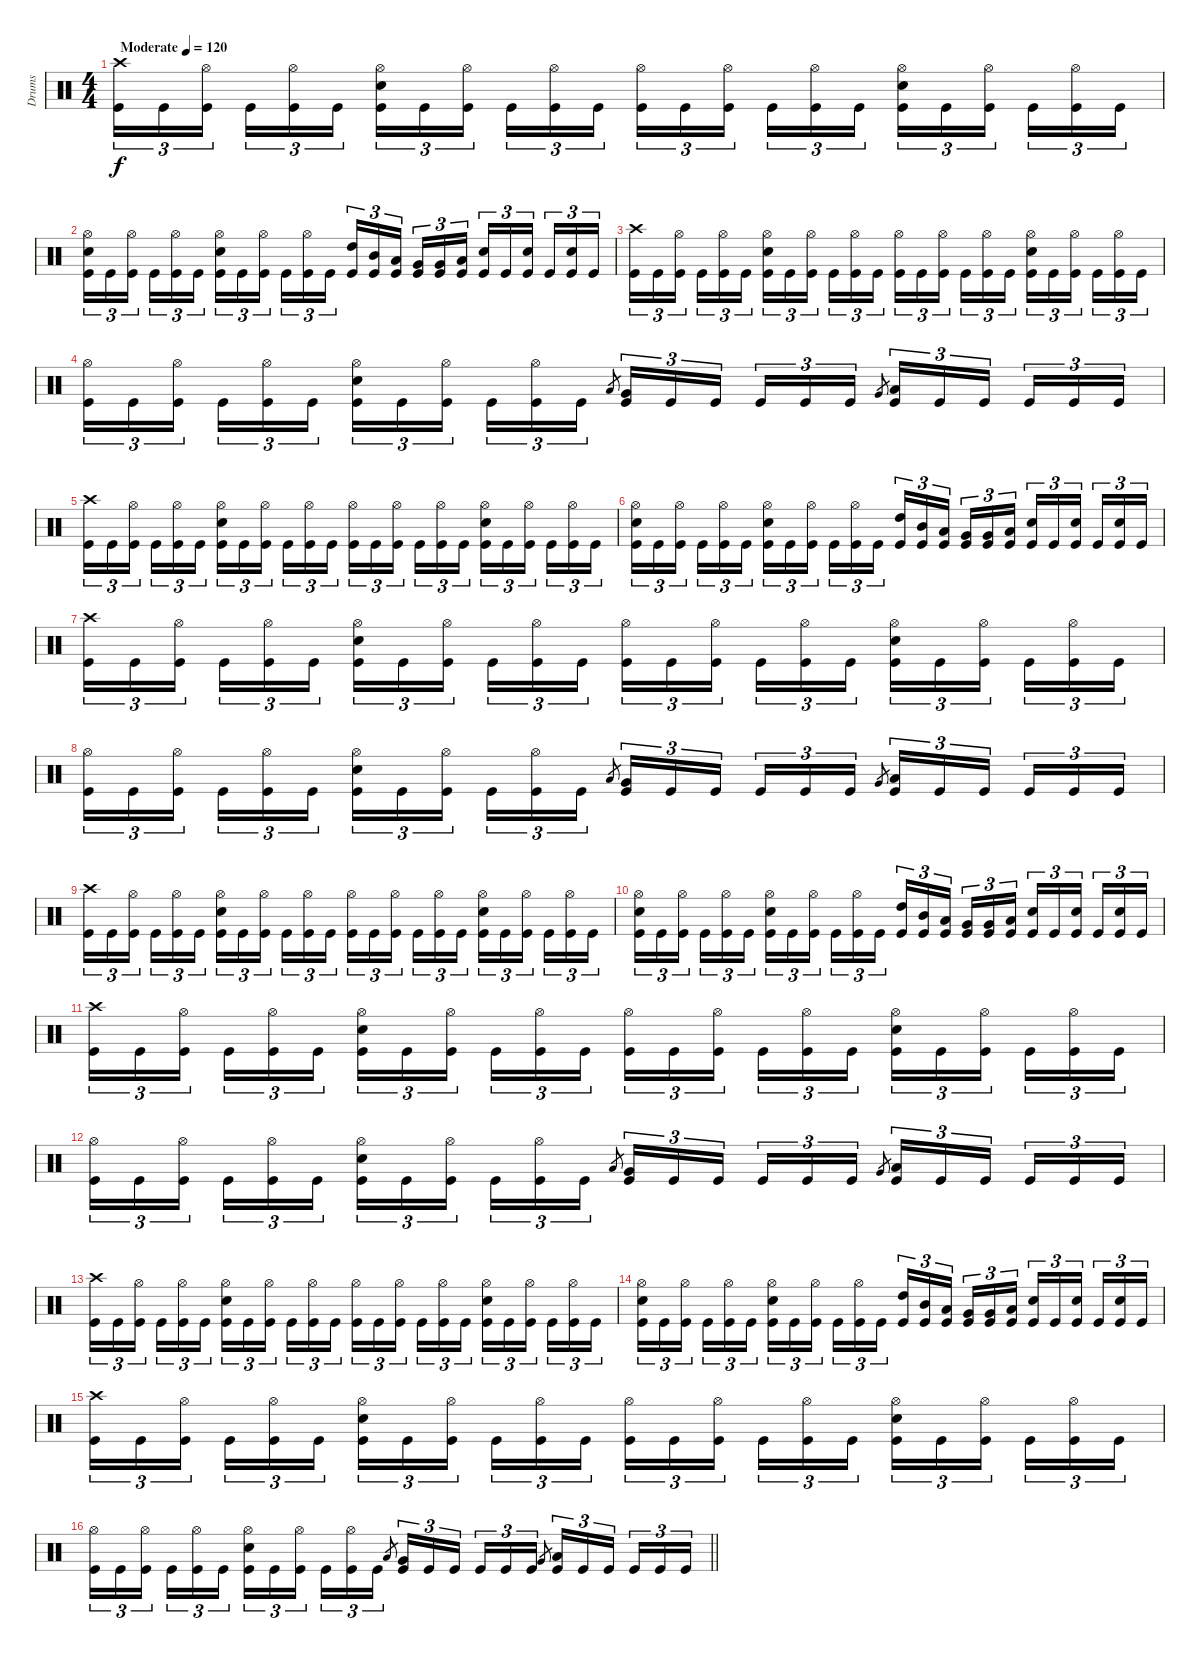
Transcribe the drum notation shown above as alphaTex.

\track ("Drums" "Drums") {instrument percussion}
\staff {score}
\articulation defaults
\ts (4 4)
\tempo (120 "Moderate")
\clef neutral
\ks c
("Crash high (hit)" "Kick (hit)").16{tu (3 2) dy f} "Kick (hit)".16{tu (3 2)} ("Hi-Hat (open)" "Kick (hit)").16{tu (3 2) beam splitsecondary} "Kick (hit)".16{tu (3 2)} ("Hi-Hat (open)" "Kick (hit)").16{tu (3 2)} "Kick (hit)".16{tu (3 2)} ("Hi-Hat (open)" "Snare (hit) 2" "Kick (hit)").16{tu (3 2)} "Kick (hit)".16{tu (3 2)} ("Hi-Hat (open)" "Kick (hit)").16{tu (3 2) beam splitsecondary} "Kick (hit)".16{tu (3 2)} ("Hi-Hat (open)" "Kick (hit)").16{tu (3 2)} "Kick (hit)".16{tu (3 2)} ("Hi-Hat (open)" "Kick (hit)").16{tu (3 2)} "Kick (hit)".16{tu (3 2)} ("Hi-Hat (open)" "Kick (hit)").16{tu (3 2) beam splitsecondary} "Kick (hit)".16{tu (3 2)} ("Hi-Hat (open)" "Kick (hit)").16{tu (3 2)} "Kick (hit)".16{tu (3 2)} ("Hi-Hat (open)" "Snare (hit) 2" "Kick (hit)").16{tu (3 2)} "Kick (hit)".16{tu (3 2)} ("Hi-Hat (open)" "Kick (hit)").16{tu (3 2) beam splitsecondary} "Kick (hit)".16{tu (3 2)} ("Hi-Hat (open)" "Kick (hit)").16{tu (3 2)} "Kick (hit)".16{tu (3 2)} |
("Hi-Hat (open)" "Snare (hit) 2" "Kick (hit)").16{tu (3 2)} "Kick (hit)".16{tu (3 2)} ("Hi-Hat (open)" "Kick (hit)").16{tu (3 2) beam splitsecondary} "Kick (hit)".16{tu (3 2)} ("Hi-Hat (open)" "Kick (hit)").16{tu (3 2)} "Kick (hit)".16{tu (3 2)} ("Hi-Hat (open)" "Snare (hit) 2" "Kick (hit)").16{tu (3 2)} "Kick (hit)".16{tu (3 2)} ("Hi-Hat (open)" "Kick (hit)").16{tu (3 2) beam splitsecondary} "Kick (hit)".16{tu (3 2)} ("Hi-Hat (open)" "Kick (hit)").16{tu (3 2)} "Kick (hit)".16{tu (3 2)} ("High Tom (hit)" "Kick (hit)").16{tu (3 2)} ("Mid Tom (hit)" "Kick (hit)").16{tu (3 2)} ("Low Tom (hit)" "Kick (hit)").16{tu (3 2) beam splitsecondary} ("Very Low Tom (hit)" "Kick (hit)").16{tu (3 2)} ("Very Low Tom (hit)" "Kick (hit)").16{tu (3 2)} ("Low Floor Tom (hit)" "Kick (hit)").16{tu (3 2)} ("Snare (hit) 2" "Kick (hit)").16{tu (3 2)} "Kick (hit)".16{tu (3 2)} ("Snare (hit) 2" "Kick (hit)").16{tu (3 2) beam splitsecondary} "Kick (hit)".16{tu (3 2)} ("Snare (hit) 2" "Kick (hit)").16{tu (3 2)} "Kick (hit)".16{tu (3 2)} |
("Crash high (hit)" "Kick (hit)").16{tu (3 2)} "Kick (hit)".16{tu (3 2)} ("Hi-Hat (open)" "Kick (hit)").16{tu (3 2) beam splitsecondary} "Kick (hit)".16{tu (3 2)} ("Hi-Hat (open)" "Kick (hit)").16{tu (3 2)} "Kick (hit)".16{tu (3 2)} ("Hi-Hat (open)" "Snare (hit) 2" "Kick (hit)").16{tu (3 2)} "Kick (hit)".16{tu (3 2)} ("Hi-Hat (open)" "Kick (hit)").16{tu (3 2) beam splitsecondary} "Kick (hit)".16{tu (3 2)} ("Hi-Hat (open)" "Kick (hit)").16{tu (3 2)} "Kick (hit)".16{tu (3 2)} ("Hi-Hat (open)" "Kick (hit)").16{tu (3 2)} "Kick (hit)".16{tu (3 2)} ("Hi-Hat (open)" "Kick (hit)").16{tu (3 2) beam splitsecondary} "Kick (hit)".16{tu (3 2)} ("Hi-Hat (open)" "Kick (hit)").16{tu (3 2)} "Kick (hit)".16{tu (3 2)} ("Hi-Hat (open)" "Snare (hit) 2" "Kick (hit)").16{tu (3 2)} "Kick (hit)".16{tu (3 2)} ("Hi-Hat (open)" "Kick (hit)").16{tu (3 2) beam splitsecondary} "Kick (hit)".16{tu (3 2)} ("Hi-Hat (open)" "Kick (hit)").16{tu (3 2)} "Kick (hit)".16{tu (3 2)} |
("Hi-Hat (open)" "Kick (hit)").16{tu (3 2)} "Kick (hit)".16{tu (3 2)} ("Hi-Hat (open)" "Kick (hit)").16{tu (3 2) beam splitsecondary} "Kick (hit)".16{tu (3 2)} ("Hi-Hat (open)" "Kick (hit)").16{tu (3 2)} "Kick (hit)".16{tu (3 2)} ("Hi-Hat (open)" "Snare (hit) 2" "Kick (hit)").16{tu (3 2)} "Kick (hit)".16{tu (3 2)} ("Hi-Hat (open)" "Kick (hit)").16{tu (3 2) beam splitsecondary} "Kick (hit)".16{tu (3 2)} ("Hi-Hat (open)" "Kick (hit)").16{tu (3 2)} "Kick (hit)".16{tu (3 2)} "Low Tom (hit)".8{gr} ("Very Low Tom (hit)" "Kick (hit)").16{tu (3 2)} "Kick (hit)".16{tu (3 2)} "Kick (hit)".16{tu (3 2) beam splitsecondary} "Kick (hit)".16{tu (3 2)} "Kick (hit)".16{tu (3 2)} "Kick (hit)".16{tu (3 2)} "Very Low Tom (hit)".8{gr} ("Low Floor Tom (hit)" "Kick (hit)").16{tu (3 2)} "Kick (hit)".16{tu (3 2)} "Kick (hit)".16{tu (3 2) beam splitsecondary} "Kick (hit)".16{tu (3 2)} "Kick (hit)".16{tu (3 2)} "Kick (hit)".16{tu (3 2)} |
("Crash high (hit)" "Kick (hit)").16{tu (3 2)} "Kick (hit)".16{tu (3 2)} ("Hi-Hat (open)" "Kick (hit)").16{tu (3 2) beam splitsecondary} "Kick (hit)".16{tu (3 2)} ("Hi-Hat (open)" "Kick (hit)").16{tu (3 2)} "Kick (hit)".16{tu (3 2)} ("Hi-Hat (open)" "Snare (hit) 2" "Kick (hit)").16{tu (3 2)} "Kick (hit)".16{tu (3 2)} ("Hi-Hat (open)" "Kick (hit)").16{tu (3 2) beam splitsecondary} "Kick (hit)".16{tu (3 2)} ("Hi-Hat (open)" "Kick (hit)").16{tu (3 2)} "Kick (hit)".16{tu (3 2)} ("Hi-Hat (open)" "Kick (hit)").16{tu (3 2)} "Kick (hit)".16{tu (3 2)} ("Hi-Hat (open)" "Kick (hit)").16{tu (3 2) beam splitsecondary} "Kick (hit)".16{tu (3 2)} ("Hi-Hat (open)" "Kick (hit)").16{tu (3 2)} "Kick (hit)".16{tu (3 2)} ("Hi-Hat (open)" "Snare (hit) 2" "Kick (hit)").16{tu (3 2)} "Kick (hit)".16{tu (3 2)} ("Hi-Hat (open)" "Kick (hit)").16{tu (3 2) beam splitsecondary} "Kick (hit)".16{tu (3 2)} ("Hi-Hat (open)" "Kick (hit)").16{tu (3 2)} "Kick (hit)".16{tu (3 2)} |
("Hi-Hat (open)" "Snare (hit) 2" "Kick (hit)").16{tu (3 2)} "Kick (hit)".16{tu (3 2)} ("Hi-Hat (open)" "Kick (hit)").16{tu (3 2) beam splitsecondary} "Kick (hit)".16{tu (3 2)} ("Hi-Hat (open)" "Kick (hit)").16{tu (3 2)} "Kick (hit)".16{tu (3 2)} ("Hi-Hat (open)" "Snare (hit) 2" "Kick (hit)").16{tu (3 2)} "Kick (hit)".16{tu (3 2)} ("Hi-Hat (open)" "Kick (hit)").16{tu (3 2) beam splitsecondary} "Kick (hit)".16{tu (3 2)} ("Hi-Hat (open)" "Kick (hit)").16{tu (3 2)} "Kick (hit)".16{tu (3 2)} ("High Tom (hit)" "Kick (hit)").16{tu (3 2)} ("Mid Tom (hit)" "Kick (hit)").16{tu (3 2)} ("Low Tom (hit)" "Kick (hit)").16{tu (3 2) beam splitsecondary} ("Very Low Tom (hit)" "Kick (hit)").16{tu (3 2)} ("Very Low Tom (hit)" "Kick (hit)").16{tu (3 2)} ("Low Floor Tom (hit)" "Kick (hit)").16{tu (3 2)} ("Snare (hit) 2" "Kick (hit)").16{tu (3 2)} "Kick (hit)".16{tu (3 2)} ("Snare (hit) 2" "Kick (hit)").16{tu (3 2) beam splitsecondary} "Kick (hit)".16{tu (3 2)} ("Snare (hit) 2" "Kick (hit)").16{tu (3 2)} "Kick (hit)".16{tu (3 2)} |
("Crash high (hit)" "Kick (hit)").16{tu (3 2)} "Kick (hit)".16{tu (3 2)} ("Hi-Hat (open)" "Kick (hit)").16{tu (3 2) beam splitsecondary} "Kick (hit)".16{tu (3 2)} ("Hi-Hat (open)" "Kick (hit)").16{tu (3 2)} "Kick (hit)".16{tu (3 2)} ("Hi-Hat (open)" "Snare (hit) 2" "Kick (hit)").16{tu (3 2)} "Kick (hit)".16{tu (3 2)} ("Hi-Hat (open)" "Kick (hit)").16{tu (3 2) beam splitsecondary} "Kick (hit)".16{tu (3 2)} ("Hi-Hat (open)" "Kick (hit)").16{tu (3 2)} "Kick (hit)".16{tu (3 2)} ("Hi-Hat (open)" "Kick (hit)").16{tu (3 2)} "Kick (hit)".16{tu (3 2)} ("Hi-Hat (open)" "Kick (hit)").16{tu (3 2) beam splitsecondary} "Kick (hit)".16{tu (3 2)} ("Hi-Hat (open)" "Kick (hit)").16{tu (3 2)} "Kick (hit)".16{tu (3 2)} ("Hi-Hat (open)" "Snare (hit) 2" "Kick (hit)").16{tu (3 2)} "Kick (hit)".16{tu (3 2)} ("Hi-Hat (open)" "Kick (hit)").16{tu (3 2) beam splitsecondary} "Kick (hit)".16{tu (3 2)} ("Hi-Hat (open)" "Kick (hit)").16{tu (3 2)} "Kick (hit)".16{tu (3 2)} |
("Hi-Hat (open)" "Kick (hit)").16{tu (3 2)} "Kick (hit)".16{tu (3 2)} ("Hi-Hat (open)" "Kick (hit)").16{tu (3 2) beam splitsecondary} "Kick (hit)".16{tu (3 2)} ("Hi-Hat (open)" "Kick (hit)").16{tu (3 2)} "Kick (hit)".16{tu (3 2)} ("Hi-Hat (open)" "Snare (hit) 2" "Kick (hit)").16{tu (3 2)} "Kick (hit)".16{tu (3 2)} ("Hi-Hat (open)" "Kick (hit)").16{tu (3 2) beam splitsecondary} "Kick (hit)".16{tu (3 2)} ("Hi-Hat (open)" "Kick (hit)").16{tu (3 2)} "Kick (hit)".16{tu (3 2)} "Low Tom (hit)".8{gr} ("Very Low Tom (hit)" "Kick (hit)").16{tu (3 2)} "Kick (hit)".16{tu (3 2)} "Kick (hit)".16{tu (3 2) beam splitsecondary} "Kick (hit)".16{tu (3 2)} "Kick (hit)".16{tu (3 2)} "Kick (hit)".16{tu (3 2)} "Very Low Tom (hit)".8{gr} ("Low Floor Tom (hit)" "Kick (hit)").16{tu (3 2)} "Kick (hit)".16{tu (3 2)} "Kick (hit)".16{tu (3 2) beam splitsecondary} "Kick (hit)".16{tu (3 2)} "Kick (hit)".16{tu (3 2)} "Kick (hit)".16{tu (3 2)} |
("Crash high (hit)" "Kick (hit)").16{tu (3 2)} "Kick (hit)".16{tu (3 2)} ("Hi-Hat (open)" "Kick (hit)").16{tu (3 2) beam splitsecondary} "Kick (hit)".16{tu (3 2)} ("Hi-Hat (open)" "Kick (hit)").16{tu (3 2)} "Kick (hit)".16{tu (3 2)} ("Hi-Hat (open)" "Snare (hit) 2" "Kick (hit)").16{tu (3 2)} "Kick (hit)".16{tu (3 2)} ("Hi-Hat (open)" "Kick (hit)").16{tu (3 2) beam splitsecondary} "Kick (hit)".16{tu (3 2)} ("Hi-Hat (open)" "Kick (hit)").16{tu (3 2)} "Kick (hit)".16{tu (3 2)} ("Hi-Hat (open)" "Kick (hit)").16{tu (3 2)} "Kick (hit)".16{tu (3 2)} ("Hi-Hat (open)" "Kick (hit)").16{tu (3 2) beam splitsecondary} "Kick (hit)".16{tu (3 2)} ("Hi-Hat (open)" "Kick (hit)").16{tu (3 2)} "Kick (hit)".16{tu (3 2)} ("Hi-Hat (open)" "Snare (hit) 2" "Kick (hit)").16{tu (3 2)} "Kick (hit)".16{tu (3 2)} ("Hi-Hat (open)" "Kick (hit)").16{tu (3 2) beam splitsecondary} "Kick (hit)".16{tu (3 2)} ("Hi-Hat (open)" "Kick (hit)").16{tu (3 2)} "Kick (hit)".16{tu (3 2)} |
("Hi-Hat (open)" "Snare (hit) 2" "Kick (hit)").16{tu (3 2)} "Kick (hit)".16{tu (3 2)} ("Hi-Hat (open)" "Kick (hit)").16{tu (3 2) beam splitsecondary} "Kick (hit)".16{tu (3 2)} ("Hi-Hat (open)" "Kick (hit)").16{tu (3 2)} "Kick (hit)".16{tu (3 2)} ("Hi-Hat (open)" "Snare (hit) 2" "Kick (hit)").16{tu (3 2)} "Kick (hit)".16{tu (3 2)} ("Hi-Hat (open)" "Kick (hit)").16{tu (3 2) beam splitsecondary} "Kick (hit)".16{tu (3 2)} ("Hi-Hat (open)" "Kick (hit)").16{tu (3 2)} "Kick (hit)".16{tu (3 2)} ("High Tom (hit)" "Kick (hit)").16{tu (3 2)} ("Mid Tom (hit)" "Kick (hit)").16{tu (3 2)} ("Low Tom (hit)" "Kick (hit)").16{tu (3 2) beam splitsecondary} ("Very Low Tom (hit)" "Kick (hit)").16{tu (3 2)} ("Very Low Tom (hit)" "Kick (hit)").16{tu (3 2)} ("Low Floor Tom (hit)" "Kick (hit)").16{tu (3 2)} ("Snare (hit) 2" "Kick (hit)").16{tu (3 2)} "Kick (hit)".16{tu (3 2)} ("Snare (hit) 2" "Kick (hit)").16{tu (3 2) beam splitsecondary} "Kick (hit)".16{tu (3 2)} ("Snare (hit) 2" "Kick (hit)").16{tu (3 2)} "Kick (hit)".16{tu (3 2)} |
("Crash high (hit)" "Kick (hit)").16{tu (3 2)} "Kick (hit)".16{tu (3 2)} ("Hi-Hat (open)" "Kick (hit)").16{tu (3 2) beam splitsecondary} "Kick (hit)".16{tu (3 2)} ("Hi-Hat (open)" "Kick (hit)").16{tu (3 2)} "Kick (hit)".16{tu (3 2)} ("Hi-Hat (open)" "Snare (hit) 2" "Kick (hit)").16{tu (3 2)} "Kick (hit)".16{tu (3 2)} ("Hi-Hat (open)" "Kick (hit)").16{tu (3 2) beam splitsecondary} "Kick (hit)".16{tu (3 2)} ("Hi-Hat (open)" "Kick (hit)").16{tu (3 2)} "Kick (hit)".16{tu (3 2)} ("Hi-Hat (open)" "Kick (hit)").16{tu (3 2)} "Kick (hit)".16{tu (3 2)} ("Hi-Hat (open)" "Kick (hit)").16{tu (3 2) beam splitsecondary} "Kick (hit)".16{tu (3 2)} ("Hi-Hat (open)" "Kick (hit)").16{tu (3 2)} "Kick (hit)".16{tu (3 2)} ("Hi-Hat (open)" "Snare (hit) 2" "Kick (hit)").16{tu (3 2)} "Kick (hit)".16{tu (3 2)} ("Hi-Hat (open)" "Kick (hit)").16{tu (3 2) beam splitsecondary} "Kick (hit)".16{tu (3 2)} ("Hi-Hat (open)" "Kick (hit)").16{tu (3 2)} "Kick (hit)".16{tu (3 2)} |
("Hi-Hat (open)" "Kick (hit)").16{tu (3 2)} "Kick (hit)".16{tu (3 2)} ("Hi-Hat (open)" "Kick (hit)").16{tu (3 2) beam splitsecondary} "Kick (hit)".16{tu (3 2)} ("Hi-Hat (open)" "Kick (hit)").16{tu (3 2)} "Kick (hit)".16{tu (3 2)} ("Hi-Hat (open)" "Snare (hit) 2" "Kick (hit)").16{tu (3 2)} "Kick (hit)".16{tu (3 2)} ("Hi-Hat (open)" "Kick (hit)").16{tu (3 2) beam splitsecondary} "Kick (hit)".16{tu (3 2)} ("Hi-Hat (open)" "Kick (hit)").16{tu (3 2)} "Kick (hit)".16{tu (3 2)} "Low Tom (hit)".8{gr} ("Very Low Tom (hit)" "Kick (hit)").16{tu (3 2)} "Kick (hit)".16{tu (3 2)} "Kick (hit)".16{tu (3 2) beam splitsecondary} "Kick (hit)".16{tu (3 2)} "Kick (hit)".16{tu (3 2)} "Kick (hit)".16{tu (3 2)} "Very Low Tom (hit)".8{gr} ("Low Floor Tom (hit)" "Kick (hit)").16{tu (3 2)} "Kick (hit)".16{tu (3 2)} "Kick (hit)".16{tu (3 2) beam splitsecondary} "Kick (hit)".16{tu (3 2)} "Kick (hit)".16{tu (3 2)} "Kick (hit)".16{tu (3 2)} |
("Crash high (hit)" "Kick (hit)").16{tu (3 2)} "Kick (hit)".16{tu (3 2)} ("Hi-Hat (open)" "Kick (hit)").16{tu (3 2) beam splitsecondary} "Kick (hit)".16{tu (3 2)} ("Hi-Hat (open)" "Kick (hit)").16{tu (3 2)} "Kick (hit)".16{tu (3 2)} ("Hi-Hat (open)" "Snare (hit) 2" "Kick (hit)").16{tu (3 2)} "Kick (hit)".16{tu (3 2)} ("Hi-Hat (open)" "Kick (hit)").16{tu (3 2) beam splitsecondary} "Kick (hit)".16{tu (3 2)} ("Hi-Hat (open)" "Kick (hit)").16{tu (3 2)} "Kick (hit)".16{tu (3 2)} ("Hi-Hat (open)" "Kick (hit)").16{tu (3 2)} "Kick (hit)".16{tu (3 2)} ("Hi-Hat (open)" "Kick (hit)").16{tu (3 2) beam splitsecondary} "Kick (hit)".16{tu (3 2)} ("Hi-Hat (open)" "Kick (hit)").16{tu (3 2)} "Kick (hit)".16{tu (3 2)} ("Hi-Hat (open)" "Snare (hit) 2" "Kick (hit)").16{tu (3 2)} "Kick (hit)".16{tu (3 2)} ("Hi-Hat (open)" "Kick (hit)").16{tu (3 2) beam splitsecondary} "Kick (hit)".16{tu (3 2)} ("Hi-Hat (open)" "Kick (hit)").16{tu (3 2)} "Kick (hit)".16{tu (3 2)} |
("Hi-Hat (open)" "Snare (hit) 2" "Kick (hit)").16{tu (3 2)} "Kick (hit)".16{tu (3 2)} ("Hi-Hat (open)" "Kick (hit)").16{tu (3 2) beam splitsecondary} "Kick (hit)".16{tu (3 2)} ("Hi-Hat (open)" "Kick (hit)").16{tu (3 2)} "Kick (hit)".16{tu (3 2)} ("Hi-Hat (open)" "Snare (hit) 2" "Kick (hit)").16{tu (3 2)} "Kick (hit)".16{tu (3 2)} ("Hi-Hat (open)" "Kick (hit)").16{tu (3 2) beam splitsecondary} "Kick (hit)".16{tu (3 2)} ("Hi-Hat (open)" "Kick (hit)").16{tu (3 2)} "Kick (hit)".16{tu (3 2)} ("High Tom (hit)" "Kick (hit)").16{tu (3 2)} ("Mid Tom (hit)" "Kick (hit)").16{tu (3 2)} ("Low Tom (hit)" "Kick (hit)").16{tu (3 2) beam splitsecondary} ("Very Low Tom (hit)" "Kick (hit)").16{tu (3 2)} ("Very Low Tom (hit)" "Kick (hit)").16{tu (3 2)} ("Low Floor Tom (hit)" "Kick (hit)").16{tu (3 2)} ("Snare (hit) 2" "Kick (hit)").16{tu (3 2)} "Kick (hit)".16{tu (3 2)} ("Snare (hit) 2" "Kick (hit)").16{tu (3 2) beam splitsecondary} "Kick (hit)".16{tu (3 2)} ("Snare (hit) 2" "Kick (hit)").16{tu (3 2)} "Kick (hit)".16{tu (3 2)} |
("Crash high (hit)" "Kick (hit)").16{tu (3 2)} "Kick (hit)".16{tu (3 2)} ("Hi-Hat (open)" "Kick (hit)").16{tu (3 2) beam splitsecondary} "Kick (hit)".16{tu (3 2)} ("Hi-Hat (open)" "Kick (hit)").16{tu (3 2)} "Kick (hit)".16{tu (3 2)} ("Hi-Hat (open)" "Snare (hit) 2" "Kick (hit)").16{tu (3 2)} "Kick (hit)".16{tu (3 2)} ("Hi-Hat (open)" "Kick (hit)").16{tu (3 2) beam splitsecondary} "Kick (hit)".16{tu (3 2)} ("Hi-Hat (open)" "Kick (hit)").16{tu (3 2)} "Kick (hit)".16{tu (3 2)} ("Hi-Hat (open)" "Kick (hit)").16{tu (3 2)} "Kick (hit)".16{tu (3 2)} ("Hi-Hat (open)" "Kick (hit)").16{tu (3 2) beam splitsecondary} "Kick (hit)".16{tu (3 2)} ("Hi-Hat (open)" "Kick (hit)").16{tu (3 2)} "Kick (hit)".16{tu (3 2)} ("Hi-Hat (open)" "Snare (hit) 2" "Kick (hit)").16{tu (3 2)} "Kick (hit)".16{tu (3 2)} ("Hi-Hat (open)" "Kick (hit)").16{tu (3 2) beam splitsecondary} "Kick (hit)".16{tu (3 2)} ("Hi-Hat (open)" "Kick (hit)").16{tu (3 2)} "Kick (hit)".16{tu (3 2)} |
\barLineRight lightlight
("Hi-Hat (open)" "Kick (hit)").16{tu (3 2)} "Kick (hit)".16{tu (3 2)} ("Hi-Hat (open)" "Kick (hit)").16{tu (3 2) beam splitsecondary} "Kick (hit)".16{tu (3 2)} ("Hi-Hat (open)" "Kick (hit)").16{tu (3 2)} "Kick (hit)".16{tu (3 2)} ("Hi-Hat (open)" "Snare (hit) 2" "Kick (hit)").16{tu (3 2)} "Kick (hit)".16{tu (3 2)} ("Hi-Hat (open)" "Kick (hit)").16{tu (3 2) beam splitsecondary} "Kick (hit)".16{tu (3 2)} ("Hi-Hat (open)" "Kick (hit)").16{tu (3 2)} "Kick (hit)".16{tu (3 2)} "Low Tom (hit)".8{gr} ("Very Low Tom (hit)" "Kick (hit)").16{tu (3 2)} "Kick (hit)".16{tu (3 2)} "Kick (hit)".16{tu (3 2) beam splitsecondary} "Kick (hit)".16{tu (3 2)} "Kick (hit)".16{tu (3 2)} "Kick (hit)".16{tu (3 2)} "Very Low Tom (hit)".8{gr} ("Low Floor Tom (hit)" "Kick (hit)").16{tu (3 2)} "Kick (hit)".16{tu (3 2)} "Kick (hit)".16{tu (3 2) beam splitsecondary} "Kick (hit)".16{tu (3 2)} "Kick (hit)".16{tu (3 2)} "Kick (hit)".16{tu (3 2)}
